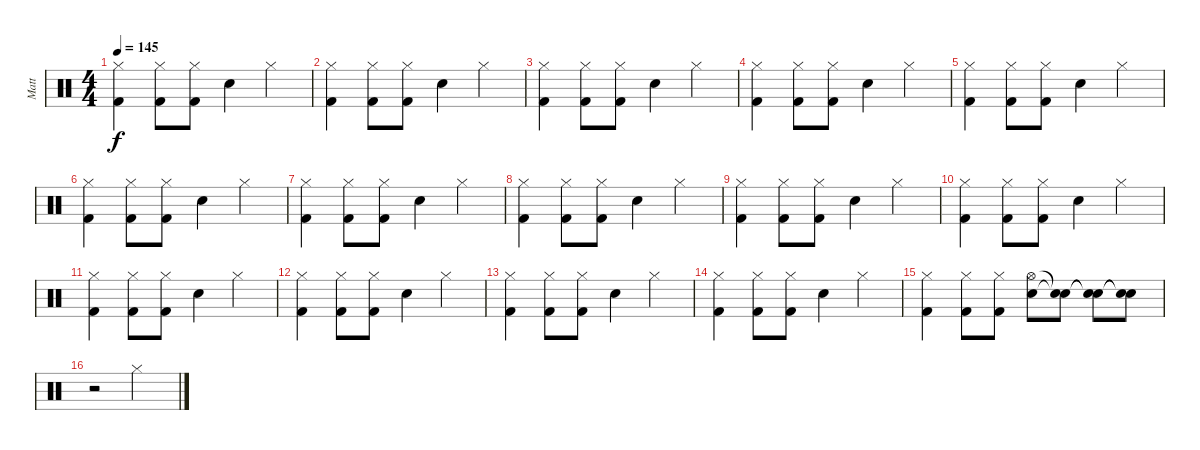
\track ("Matt" "Matt") {instrument percussion}
\staff {score}
\articulation defaults
\ts (4 4)
\tempo 145
\clef neutral
\ks c
("Hi-Hat (closed)" "Kick (hit) 2").4{dy f} ("Hi-Hat (closed)" "Kick (hit) 2").8 ("Hi-Hat (closed)" "Kick (hit) 2").8 "Electric Snare (hit)".4 "Hi-Hat (closed)".4 |
("Hi-Hat (closed)" "Kick (hit) 2").4 ("Hi-Hat (closed)" "Kick (hit) 2").8 ("Hi-Hat (closed)" "Kick (hit) 2").8 "Electric Snare (hit)".4 "Hi-Hat (closed)".4 |
("Hi-Hat (closed)" "Kick (hit) 2").4 ("Hi-Hat (closed)" "Kick (hit) 2").8 ("Hi-Hat (closed)" "Kick (hit) 2").8 "Electric Snare (hit)".4 "Hi-Hat (closed)".4 |
("Hi-Hat (closed)" "Kick (hit) 2").4 ("Hi-Hat (closed)" "Kick (hit) 2").8 ("Hi-Hat (closed)" "Kick (hit) 2").8 "Electric Snare (hit)".4 "Hi-Hat (closed)".4 |
("Hi-Hat (closed)" "Kick (hit) 2").4 ("Hi-Hat (closed)" "Kick (hit) 2").8 ("Hi-Hat (closed)" "Kick (hit) 2").8 "Electric Snare (hit)".4 "Hi-Hat (closed)".4 |
("Hi-Hat (closed)" "Kick (hit) 2").4 ("Hi-Hat (closed)" "Kick (hit) 2").8 ("Hi-Hat (closed)" "Kick (hit) 2").8 "Electric Snare (hit)".4 "Hi-Hat (closed)".4 |
("Hi-Hat (closed)" "Kick (hit) 2").4 ("Hi-Hat (closed)" "Kick (hit) 2").8 ("Hi-Hat (closed)" "Kick (hit) 2").8 "Electric Snare (hit)".4 "Hi-Hat (closed)".4 |
("Hi-Hat (closed)" "Kick (hit) 2").4 ("Hi-Hat (closed)" "Kick (hit) 2").8 ("Hi-Hat (closed)" "Kick (hit) 2").8 "Electric Snare (hit)".4 "Hi-Hat (closed)".4 |
("Hi-Hat (closed)" "Kick (hit) 2").4 ("Hi-Hat (closed)" "Kick (hit) 2").8 ("Hi-Hat (closed)" "Kick (hit) 2").8 "Electric Snare (hit)".4 "Hi-Hat (closed)".4 |
("Hi-Hat (closed)" "Kick (hit) 2").4 ("Hi-Hat (closed)" "Kick (hit) 2").8 ("Hi-Hat (closed)" "Kick (hit) 2").8 "Electric Snare (hit)".4 "Hi-Hat (closed)".4 |
("Hi-Hat (closed)" "Kick (hit) 2").4 ("Hi-Hat (closed)" "Kick (hit) 2").8 ("Hi-Hat (closed)" "Kick (hit) 2").8 "Electric Snare (hit)".4 "Hi-Hat (closed)".4 |
("Hi-Hat (closed)" "Kick (hit) 2").4 ("Hi-Hat (closed)" "Kick (hit) 2").8 ("Hi-Hat (closed)" "Kick (hit) 2").8 "Electric Snare (hit)".4 "Hi-Hat (closed)".4 |
("Hi-Hat (closed)" "Kick (hit) 2").4 ("Hi-Hat (closed)" "Kick (hit) 2").8 ("Hi-Hat (closed)" "Kick (hit) 2").8 "Electric Snare (hit)".4 "Hi-Hat (closed)".4 |
("Hi-Hat (closed)" "Kick (hit) 2").4 ("Hi-Hat (closed)" "Kick (hit) 2").8 ("Hi-Hat (closed)" "Kick (hit) 2").8 "Electric Snare (hit)".4 "Hi-Hat (closed)".4 |
("Hi-Hat (closed)" "Kick (hit) 2").4 ("Hi-Hat (closed)" "Kick (hit) 2").8 ("Hi-Hat (closed)" "Kick (hit) 2").8 ("Hi-Hat (open)" "Electric Snare (hit)").8 ("Snare (hit)"{t} "Snare (hit)"{t}).8 ("Snare (hit)"{t} "Snare (hit)"{t}).8 ("Snare (hit)"{t} "Snare (hit)"{t}).8 |
r.2 "Hi-Hat (closed)".2
